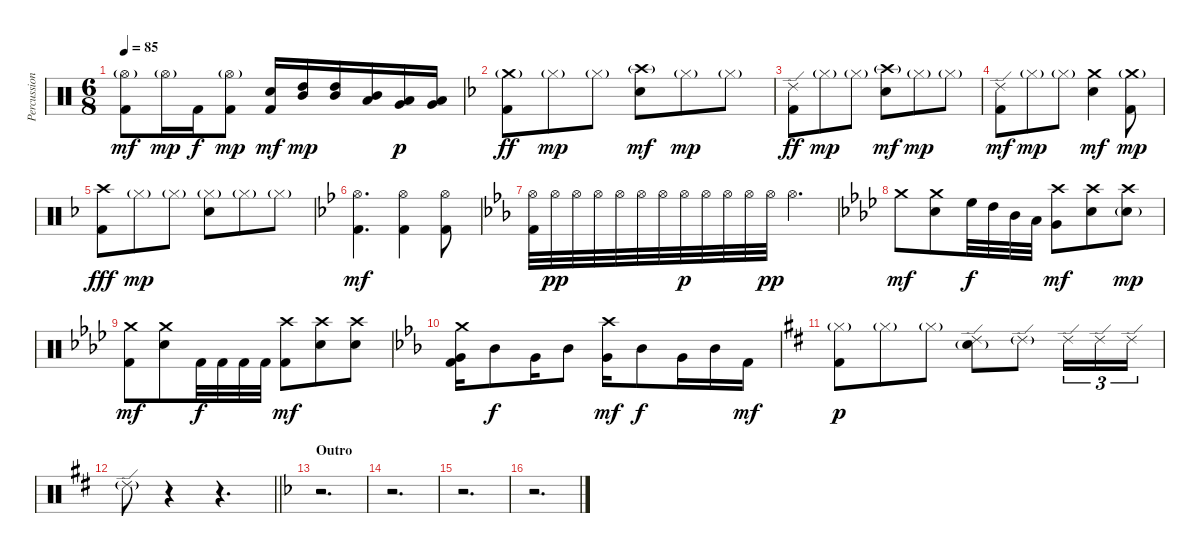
\track ("Percussion (Daniele Carbonera)" "Percussion") {instrument percussion}
\staff {score}
\articulation defaults
\ts (6 8)
\tempo 85
\clef neutral
\ks aminor
("Hi-Hat (open)"{g} "Kick (hit) 2").8{dy mf} "Hi-Hat (open)"{g}.16{dy mp} "Kick (hit) 2".16{dy f} ("Hi-Hat (open)"{g} "Kick (hit) 2").8{dy mp} ("Electric Snare (hit)" "Kick (hit) 2").16{dy mf} ("High Tom (hit)" "Mid Tom (hit)").16{dy mp} ("High Tom (hit)" "Mid Tom (hit)").16 ("Mid Tom (hit)" "Low Tom (hit)").16 ("Low Tom (hit)" "Very Low Tom (hit)").16{dy p} ("Low Tom (hit)" "Very Low Tom (hit)").16 |
\ks dminor
("Crash medium (hit)"{g} "Kick (hit) 2").8{dy ff} "Hi-Hat (closed)"{g}.8{dy mp} "Hi-Hat (closed)"{g}.8 ("Crash high (hit)"{g} "Electric Snare (hit)").8{dy mf} "Hi-Hat (closed)"{g}.8{dy mp} "Hi-Hat (closed)"{g}.8 |
("Ride (edge) 2" "Kick (hit) 2").8{dy ff} "Hi-Hat (closed)"{g}.8{dy mp} "Hi-Hat (closed)"{g}.8 ("Crash high (hit)"{g} "Electric Snare (hit)").8{dy mf} "Hi-Hat (closed)"{g}.8{dy mp} "Hi-Hat (closed)"{g}.8 |
("Ride (edge) 2" "Kick (hit) 2").8{dy mf} "Hi-Hat (closed)"{g}.8{dy mp} "Hi-Hat (closed)"{g}.8 ("Crash medium (hit)" "Electric Snare (hit)").4{dy mf} ("Crash medium (hit)"{g} "Kick (hit) 2").8{dy mp} |
("Crash high (hit)" "Kick (hit) 2").8{dy fff} "Hi-Hat (closed)"{g}.8{dy mp} "Hi-Hat (closed)"{g}.8 ("Hi-Hat (closed)"{g} "Electric Snare (hit)").8 "Hi-Hat (closed)"{g}.8 "Hi-Hat (closed)"{g}.8 |
\ks gminor
("Hi-Hat (open)" "Kick (hit) 2").4{d dy mf} ("Hi-Hat (open)" "Kick (hit) 2").4 ("Hi-Hat (open)" "Kick (hit) 2").8 |
\ks cminor
("Hi-Hat (open)" "Kick (hit) 2").32 "Hi-Hat (open)".32{dy pp} "Hi-Hat (open)".32 "Hi-Hat (open)".32 "Hi-Hat (open)".32 "Hi-Hat (open)".32 "Hi-Hat (open)".32 "Hi-Hat (open)".32{dy p} "Hi-Hat (open)".32 "Hi-Hat (open)".32 "Hi-Hat (open)".32 "Hi-Hat (open)".32{dy pp} "Hi-Hat (open)".4{d} |
\ks fminor "Crash medium (hit)".8{dy mf}
("Crash medium (hit)" "Electric Snare (hit)").8 "High Floor Tom (hit)".32{dy f} "High Tom (hit)".32 "Mid Tom (hit)".32 "Low Tom (hit)".32 ("Crash high (hit)" "Very Low Tom (hit)").8{dy mf} ("Crash high (hit)" "Electric Snare (hit)").8 ("Crash high (hit)" "Electric Snare (hit)"{g}).8{dy mp} |
("Crash medium (hit)" "Kick (hit) 2").8{dy mf} ("Crash medium (hit)" "Electric Snare (hit)").8 "Kick (hit) 2".32{dy f} "Kick (hit) 2".32 "Kick (hit) 2".32 "Kick (hit) 2".32 ("Crash high (hit)" "Kick (hit) 2").8{dy mf} ("Crash high (hit)" "Electric Snare (hit)").8 ("Crash high (hit)" "Electric Snare (hit)").8 |
\ks cminor
("Crash medium (hit)" "Very Low Tom (hit)" "Kick (hit) 2").16 "Mid Tom (hit)".8{dy f} "Very Low Tom (hit)".16 "Mid Tom (hit)".8 ("Crash high (hit)" "Very Low Tom (hit)").16{dy mf} "Mid Tom (hit)".8{dy f} "Very Low Tom (hit)".16 "Mid Tom (hit)".16 "Kick (hit) 2".16{dy mf} |
\ks d
("Hi-Hat (closed)"{g} "Kick (hit) 2").8{dy p} "Hi-Hat (closed)"{g}.8 "Hi-Hat (closed)"{g}.8 ("Ride (edge) 2" "Electric Snare (hit)"{g}).8 "Ride (edge) 2"{g}.8 "Ride (edge) 2".16{tu (3 2)} "Ride (edge) 2".16{tu (3 2)} "Ride (edge) 2".16{tu (3 2)} |
\barLineRight lightlight "Ride (edge) 2"{g}.8
r.4 r.4{d} |
\section ("" "Outro")
\ks dminor
r.2{d} |
r.2{d} |
r.2{d} |
r.2{d}
